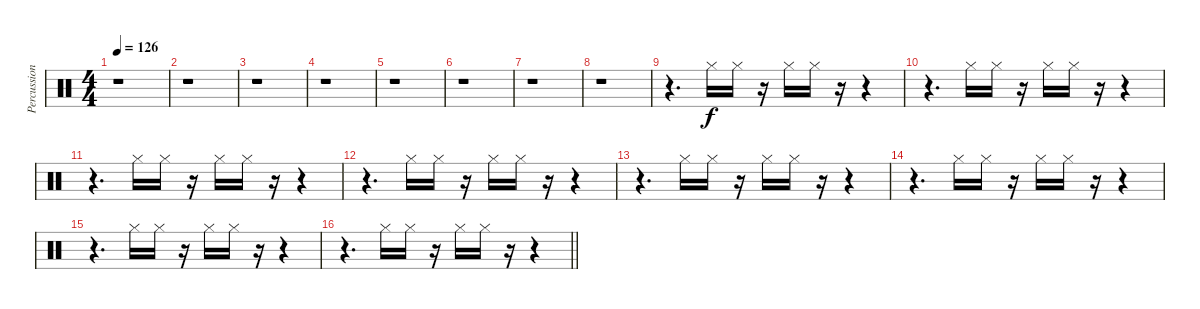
\track ("Percussions" "Percussion") {instrument percussion}
\staff {score}
\articulation defaults
\ts (4 4)
\tempo 126
\clef neutral
\ks c
r.1{dy f} |
r.1 |
r.1 |
r.1 |
r.1 |
r.1 |
r.1 |
r.1 |
r.4{d} "Hi-Hat (closed)".16 "Hi-Hat (closed)".16 r.16 "Hi-Hat (closed)".16 "Hi-Hat (closed)".16 r.16 r.4 |
r.4{d} "Hi-Hat (closed)".16 "Hi-Hat (closed)".16 r.16 "Hi-Hat (closed)".16 "Hi-Hat (closed)".16 r.16 r.4 |
r.4{d} "Hi-Hat (closed)".16 "Hi-Hat (closed)".16 r.16 "Hi-Hat (closed)".16 "Hi-Hat (closed)".16 r.16 r.4 |
r.4{d} "Hi-Hat (closed)".16 "Hi-Hat (closed)".16 r.16 "Hi-Hat (closed)".16 "Hi-Hat (closed)".16 r.16 r.4 |
r.4{d} "Hi-Hat (closed)".16 "Hi-Hat (closed)".16 r.16 "Hi-Hat (closed)".16 "Hi-Hat (closed)".16 r.16 r.4 |
r.4{d} "Hi-Hat (closed)".16 "Hi-Hat (closed)".16 r.16 "Hi-Hat (closed)".16 "Hi-Hat (closed)".16 r.16 r.4 |
r.4{d} "Hi-Hat (closed)".16 "Hi-Hat (closed)".16 r.16 "Hi-Hat (closed)".16 "Hi-Hat (closed)".16 r.16 r.4 |
\barLineRight lightlight
r.4{d} "Hi-Hat (closed)".16 "Hi-Hat (closed)".16 r.16 "Hi-Hat (closed)".16 "Hi-Hat (closed)".16 r.16 r.4
